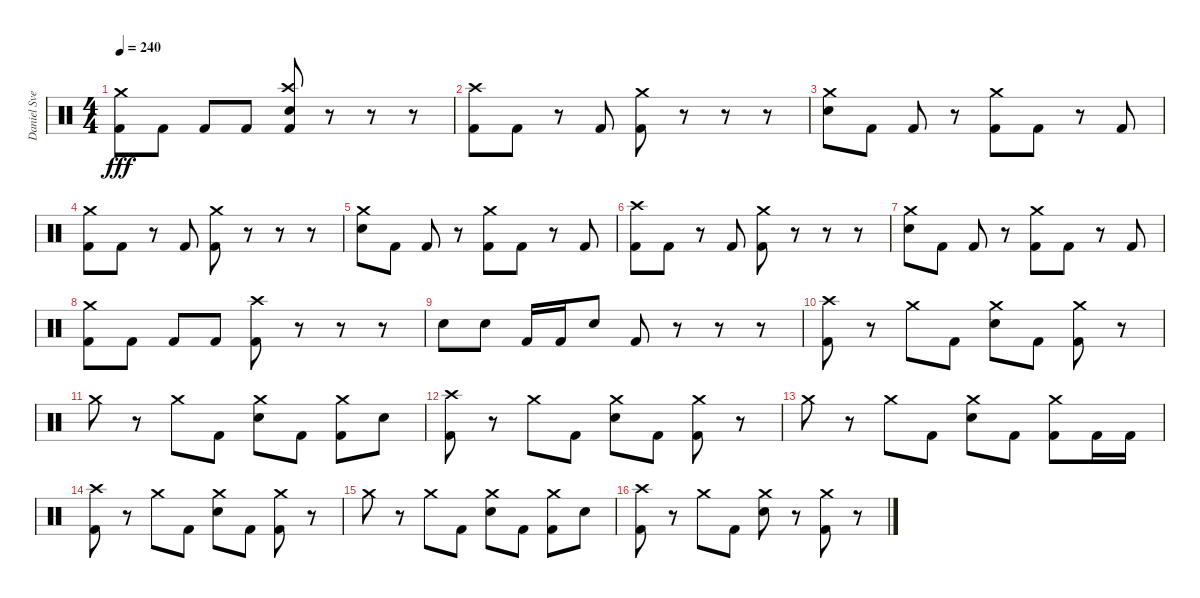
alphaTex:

\track ("Daniel Svensson" "Daniel Sve") {instrument percussion}
\staff {score}
\articulation defaults
\ts (4 4)
\tempo 240
\clef neutral
\ks c
("Crash medium (hit)" "Kick (hit) 2").8{dy fff} "Kick (hit) 2".8 "Kick (hit) 2".8 "Kick (hit) 2".8 ("Crash high (hit)" "Electric Snare (hit)" "Kick (hit) 2").8 r.8 r.8 r.8 |
("Crash high (hit)" "Kick (hit) 2").8 "Kick (hit) 2".8 r.8 "Kick (hit) 2".8 ("Crash medium (hit)" "Kick (hit) 2").8 r.8 r.8 r.8 |
("Crash medium (hit)" "Electric Snare (hit)").8 "Kick (hit) 2".8 "Kick (hit) 2".8 r.8 ("Crash medium (hit)" "Kick (hit) 2").8 "Kick (hit) 2".8 r.8 "Kick (hit) 2".8 |
("Crash medium (hit)" "Kick (hit) 2").8 "Kick (hit) 2".8 r.8 "Kick (hit) 2".8 ("Crash medium (hit)" "Kick (hit) 2").8 r.8 r.8 r.8 |
("Crash medium (hit)" "Electric Snare (hit)").8 "Kick (hit) 2".8 "Kick (hit) 2".8 r.8 ("Crash medium (hit)" "Kick (hit) 2").8 "Kick (hit) 2".8 r.8 "Kick (hit) 2".8 |
("Crash high (hit)" "Kick (hit) 2").8 "Kick (hit) 2".8 r.8 "Kick (hit) 2".8 ("Crash medium (hit)" "Kick (hit) 2").8 r.8 r.8 r.8 |
("Crash medium (hit)" "Electric Snare (hit)").8 "Kick (hit) 2".8 "Kick (hit) 2".8 r.8 ("Crash medium (hit)" "Kick (hit) 2").8 "Kick (hit) 2".8 r.8 "Kick (hit) 2".8 |
("Crash medium (hit)" "Kick (hit) 2").8 "Kick (hit) 2".8 "Kick (hit) 2".8 "Kick (hit) 2".8 ("Crash high (hit)" "Kick (hit) 2").8 r.8 r.8 r.8 |
"Electric Snare (hit)".8 "Electric Snare (hit)".8 "Kick (hit) 2".16 "Kick (hit) 2".16 "Electric Snare (hit)".8 "Kick (hit) 2".8 r.8 r.8 r.8 |
("Crash high (hit)" "Kick (hit) 2").8 r.8 "Crash medium (hit)".8 "Kick (hit) 2".8 ("Crash medium (hit)" "Electric Snare (hit)").8 "Kick (hit) 2".8 ("Crash medium (hit)" "Kick (hit) 2").8 r.8 |
"Crash medium (hit)".8 r.8 "Crash medium (hit)".8 "Kick (hit) 2".8 ("Crash medium (hit)" "Electric Snare (hit)").8 "Kick (hit) 2".8 ("Crash medium (hit)" "Kick (hit) 2").8 "Electric Snare (hit)".8 |
("Crash high (hit)" "Kick (hit) 2").8 r.8 "Crash medium (hit)".8 "Kick (hit) 2".8 ("Crash medium (hit)" "Electric Snare (hit)").8 "Kick (hit) 2".8 ("Crash medium (hit)" "Kick (hit) 2").8 r.8 |
"Crash medium (hit)".8 r.8 "Crash medium (hit)".8 "Kick (hit) 2".8 ("Crash medium (hit)" "Electric Snare (hit)").8 "Kick (hit) 2".8 ("Crash medium (hit)" "Kick (hit) 2").8 "Kick (hit) 2".16 "Kick (hit) 2".16 |
("Crash high (hit)" "Kick (hit) 2").8 r.8 "Crash medium (hit)".8 "Kick (hit) 2".8 ("Crash medium (hit)" "Electric Snare (hit)").8 "Kick (hit) 2".8 ("Crash medium (hit)" "Kick (hit) 2").8 r.8 |
"Crash medium (hit)".8 r.8 "Crash medium (hit)".8 "Kick (hit) 2".8 ("Crash medium (hit)" "Electric Snare (hit)").8 "Kick (hit) 2".8 ("Crash medium (hit)" "Kick (hit) 2").8 "Electric Snare (hit)".8 |
("Crash high (hit)" "Kick (hit) 2").8 r.8 "Crash medium (hit)".8 "Kick (hit) 2".8 ("Crash medium (hit)" "Electric Snare (hit)").8 r.8 ("Crash medium (hit)" "Kick (hit) 2").8 r.8
